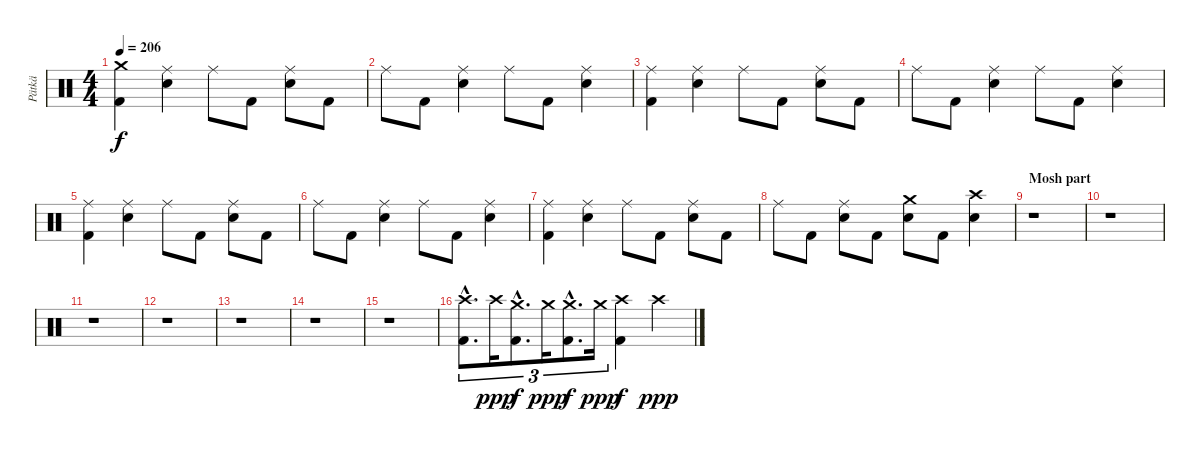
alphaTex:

\track ("Pätkä" "Pätkä") {instrument percussion}
\staff {score}
\articulation defaults
\ts (4 4)
\tempo 206
\clef neutral
\ks c
("Crash medium (hit)" "Kick (hit) 2").4{dy f} ("Ride (middle)" "Electric Snare (hit)").4 "Ride (middle)".8 "Kick (hit) 2".8 ("Ride (middle)" "Electric Snare (hit)").8 "Kick (hit) 2".8 |
"Ride (middle)".8 "Kick (hit) 2".8 ("Ride (middle)" "Electric Snare (hit)").4 "Ride (middle)".8 "Kick (hit) 2".8 ("Ride (middle)" "Electric Snare (hit)").4 |
("Ride (middle)" "Kick (hit) 2").4 ("Ride (middle)" "Electric Snare (hit)").4 "Ride (middle)".8 "Kick (hit) 2".8 ("Ride (middle)" "Electric Snare (hit)").8 "Kick (hit) 2".8 |
"Ride (middle)".8 "Kick (hit) 2".8 ("Ride (middle)" "Electric Snare (hit)").4 "Ride (middle)".8 "Kick (hit) 2".8 ("Ride (middle)" "Electric Snare (hit)").4 |
("Ride (middle)" "Kick (hit) 2").4 ("Ride (middle)" "Electric Snare (hit)").4 "Ride (middle)".8 "Kick (hit) 2".8 ("Ride (middle)" "Electric Snare (hit)").8 "Kick (hit) 2".8 |
"Ride (middle)".8 "Kick (hit) 2".8 ("Ride (middle)" "Electric Snare (hit)").4 "Ride (middle)".8 "Kick (hit) 2".8 ("Ride (middle)" "Electric Snare (hit)").4 |
("Ride (middle)" "Kick (hit) 2").4 ("Ride (middle)" "Electric Snare (hit)").4 "Ride (middle)".8 "Kick (hit) 2".8 ("Ride (middle)" "Electric Snare (hit)").8 "Kick (hit) 2".8 |
"Ride (middle)".8 "Kick (hit) 2".8 ("Ride (middle)" "Electric Snare (hit)").8 "Kick (hit) 2".8 ("Crash medium (hit)" "Electric Snare (hit)").8 "Kick (hit) 2".8 ("Crash high (hit)" "Electric Snare (hit)").4 |
\section ("" "Mosh part")
r.1 |
r.1 |
r.1 |
r.1 |
r.1 |
r.1 |
r.1 |
("Crash high (hit)"{hac} "Kick (hit) 2"{hac}).8{d tu (3 2)} "Crash high (hit)".16{tu (3 2) dy ppp} ("Crash medium (hit)"{hac} "Kick (hit) 2"{hac}).8{d tu (3 2) dy f} "Crash medium (hit)".16{tu (3 2) dy ppp} ("Crash medium (hit)"{hac} "Kick (hit) 2"{hac}).8{d tu (3 2) dy f} "Crash medium (hit)".16{tu (3 2) dy ppp} ("Crash high (hit)" "Kick (hit) 2").4{dy f} "Crash high (hit)".4{dy ppp}
